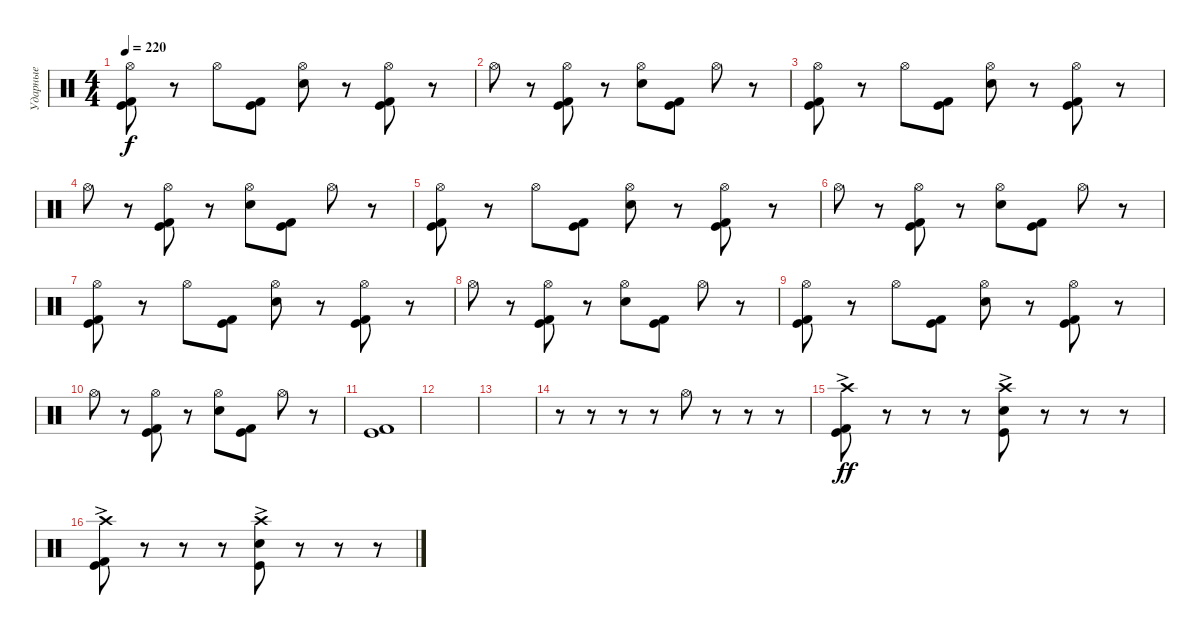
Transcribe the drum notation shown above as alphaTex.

\track ("Ударные" "Ударные") {instrument percussion}
\staff {score}
\articulation defaults
\ts (4 4)
\tempo 220
\clef neutral
\ks c
("Hi-Hat (open)" "Kick (hit)" "Kick (hit) 2").8{dy f} r.8 "Hi-Hat (open)".8 ("Kick (hit)" "Kick (hit) 2").8 ("Hi-Hat (open)" "Electric Snare (hit)").8 r.8 ("Hi-Hat (open)" "Kick (hit)" "Kick (hit) 2").8 r.8 |
"Hi-Hat (open)".8 r.8 ("Hi-Hat (open)" "Kick (hit)" "Kick (hit) 2").8 r.8 ("Hi-Hat (open)" "Electric Snare (hit)").8 ("Kick (hit)" "Kick (hit) 2").8 "Hi-Hat (open)".8 r.8 |
("Hi-Hat (open)" "Kick (hit)" "Kick (hit) 2").8 r.8 "Hi-Hat (open)".8 ("Kick (hit)" "Kick (hit) 2").8 ("Hi-Hat (open)" "Electric Snare (hit)").8 r.8 ("Hi-Hat (open)" "Kick (hit)" "Kick (hit) 2").8 r.8 |
"Hi-Hat (open)".8 r.8 ("Hi-Hat (open)" "Kick (hit)" "Kick (hit) 2").8 r.8 ("Hi-Hat (open)" "Electric Snare (hit)").8 ("Kick (hit)" "Kick (hit) 2").8 "Hi-Hat (open)".8 r.8 |
("Hi-Hat (open)" "Kick (hit)" "Kick (hit) 2").8 r.8 "Hi-Hat (open)".8 ("Kick (hit)" "Kick (hit) 2").8 ("Hi-Hat (open)" "Electric Snare (hit)").8 r.8 ("Hi-Hat (open)" "Kick (hit)" "Kick (hit) 2").8 r.8 |
"Hi-Hat (open)".8 r.8 ("Hi-Hat (open)" "Kick (hit)" "Kick (hit) 2").8 r.8 ("Hi-Hat (open)" "Electric Snare (hit)").8 ("Kick (hit)" "Kick (hit) 2").8 "Hi-Hat (open)".8 r.8 |
("Hi-Hat (open)" "Kick (hit)" "Kick (hit) 2").8 r.8 "Hi-Hat (open)".8 ("Kick (hit)" "Kick (hit) 2").8 ("Hi-Hat (open)" "Electric Snare (hit)").8 r.8 ("Hi-Hat (open)" "Kick (hit)" "Kick (hit) 2").8 r.8 |
"Hi-Hat (open)".8 r.8 ("Hi-Hat (open)" "Kick (hit)" "Kick (hit) 2").8 r.8 ("Hi-Hat (open)" "Electric Snare (hit)").8 ("Kick (hit)" "Kick (hit) 2").8 "Hi-Hat (open)".8 r.8 |
("Hi-Hat (open)" "Kick (hit)" "Kick (hit) 2").8 r.8 "Hi-Hat (open)".8 ("Kick (hit)" "Kick (hit) 2").8 ("Hi-Hat (open)" "Electric Snare (hit)").8 r.8 ("Hi-Hat (open)" "Kick (hit)" "Kick (hit) 2").8 r.8 |
"Hi-Hat (open)".8 r.8 ("Hi-Hat (open)" "Kick (hit)" "Kick (hit) 2").8 r.8 ("Hi-Hat (open)" "Electric Snare (hit)").8 ("Kick (hit)" "Kick (hit) 2").8 "Hi-Hat (open)".8 r.8 |
("Kick (hit)" "Kick (hit) 2").1 |
|
|
r.8 r.8 r.8 r.8 "Hi-Hat (open)".8 r.8 r.8 r.8 |
("Crash high (hit)"{ac} "Kick (hit)"{ac} "Kick (hit) 2"{ac}).8{dy ff} r.8 r.8 r.8 ("Crash high (hit)"{ac} "Electric Snare (hit)"{ac} "Kick (hit)").8 r.8 r.8 r.8 |
("Crash high (hit)"{ac} "Kick (hit)"{ac} "Kick (hit) 2"{ac}).8 r.8 r.8 r.8 ("Crash high (hit)"{ac} "Electric Snare (hit)"{ac} "Kick (hit)").8 r.8 r.8 r.8
